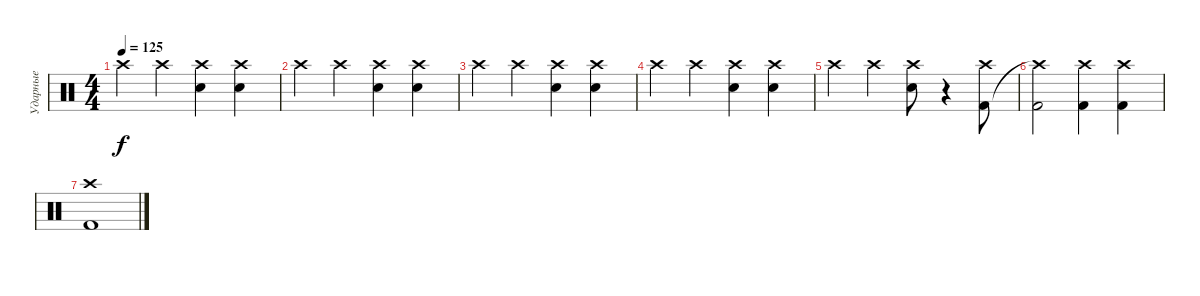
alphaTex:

\track ("Ударные" "Ударные") {instrument percussion}
\staff {score}
\articulation defaults
\ts (4 4)
\tempo 125
\clef neutral
\ks c "Crash high (hit)".4{dy f} "Crash high (hit)".4
("Crash high (hit)" "Electric Snare (hit)").4 ("Crash high (hit)" "Electric Snare (hit)").4 |
"Crash high (hit)".4 "Crash high (hit)".4 ("Crash high (hit)" "Electric Snare (hit)").4 ("Crash high (hit)" "Electric Snare (hit)").4 |
"Crash high (hit)".4 "Crash high (hit)".4 ("Crash high (hit)" "Electric Snare (hit)").4 ("Crash high (hit)" "Electric Snare (hit)").4 |
"Crash high (hit)".4 "Crash high (hit)".4 ("Crash high (hit)" "Electric Snare (hit)").4 ("Crash high (hit)" "Electric Snare (hit)").4 |
"Crash high (hit)".4 "Crash high (hit)".4 ("Crash high (hit)" "Electric Snare (hit)").8 r.4 ("Crash high (hit)" "Kick (hit) 2").8 |
("Kick (hit) 2" "Crash high (hit)"{t}).2 ("Kick (hit) 2" "Crash high (hit)").4 ("Kick (hit) 2" "Crash high (hit)").4 |
("Kick (hit) 2" "Crash high (hit)").1
